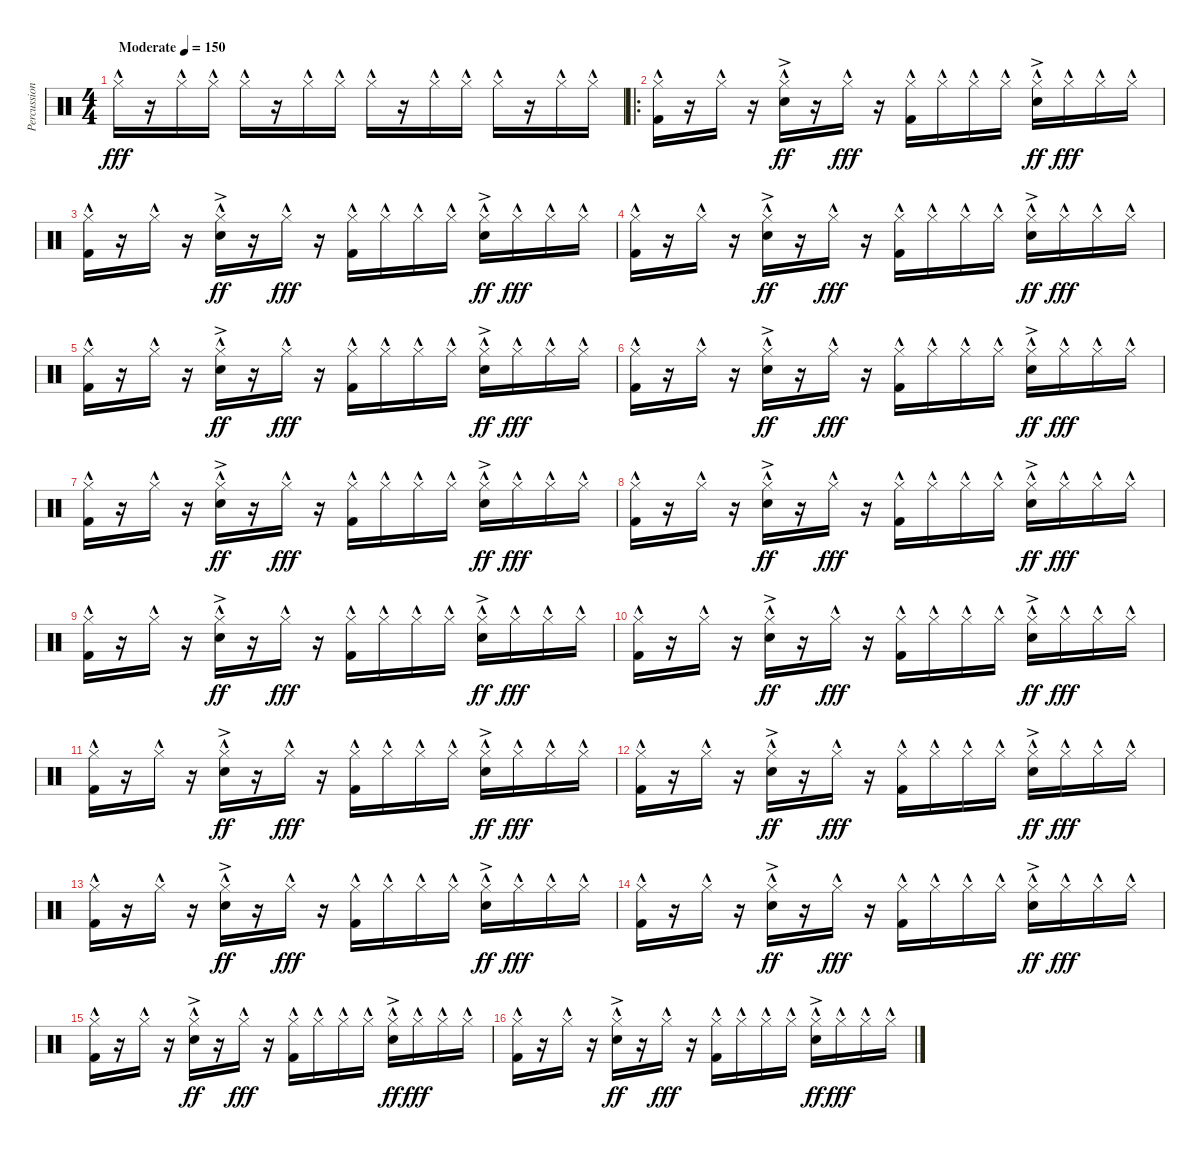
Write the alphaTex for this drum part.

\track ("Percussion" "Percussion") {instrument percussion}
\staff {score}
\articulation defaults
\ts (4 4)
\tempo (150 "Moderate")
\clef neutral
\ks c "Hi-Hat (closed)"{hac}.16{dy fff}
r.16 "Hi-Hat (closed)"{hac}.16 "Hi-Hat (closed)"{hac}.16 "Hi-Hat (closed)"{hac}.16 r.16 "Hi-Hat (closed)"{hac}.16 "Hi-Hat (closed)"{hac}.16 "Hi-Hat (closed)"{hac}.16 r.16 "Hi-Hat (closed)"{hac}.16 "Hi-Hat (closed)"{hac}.16 "Hi-Hat (closed)"{hac}.16 r.16 "Hi-Hat (closed)"{hac}.16 "Hi-Hat (closed)"{hac}.16 |
\ro
("Hi-Hat (closed)"{hac} "Kick (hit) 2"{hac}).16 r.16 "Hi-Hat (closed)"{hac}.16 r.16 ("Hi-Hat (closed)"{hac} "Snare (hit) 2"{ac}).16{dy ff} r.16 "Hi-Hat (closed)"{hac}.16{dy fff} r.16 ("Hi-Hat (closed)"{hac} "Kick (hit) 2"{hac}).16 "Hi-Hat (closed)"{hac}.16 "Hi-Hat (closed)"{hac}.16 "Hi-Hat (closed)"{hac}.16 ("Hi-Hat (closed)"{hac} "Snare (hit) 2"{ac}).16{dy ff} "Hi-Hat (closed)"{hac}.16{dy fff} "Hi-Hat (closed)"{hac}.16 "Hi-Hat (closed)"{hac}.16 |
("Hi-Hat (closed)"{hac} "Kick (hit) 2"{hac}).16 r.16 "Hi-Hat (closed)"{hac}.16 r.16 ("Hi-Hat (closed)"{hac} "Snare (hit) 2"{ac}).16{dy ff} r.16 "Hi-Hat (closed)"{hac}.16{dy fff} r.16 ("Hi-Hat (closed)"{hac} "Kick (hit) 2"{hac}).16 "Hi-Hat (closed)"{hac}.16 "Hi-Hat (closed)"{hac}.16 "Hi-Hat (closed)"{hac}.16 ("Hi-Hat (closed)"{hac} "Snare (hit) 2"{ac}).16{dy ff} "Hi-Hat (closed)"{hac}.16{dy fff} "Hi-Hat (closed)"{hac}.16 "Hi-Hat (closed)"{hac}.16 |
("Hi-Hat (closed)"{hac} "Kick (hit) 2"{hac}).16 r.16 "Hi-Hat (closed)"{hac}.16 r.16 ("Hi-Hat (closed)"{hac} "Snare (hit) 2"{ac}).16{dy ff} r.16 "Hi-Hat (closed)"{hac}.16{dy fff} r.16 ("Hi-Hat (closed)"{hac} "Kick (hit) 2"{hac}).16 "Hi-Hat (closed)"{hac}.16 "Hi-Hat (closed)"{hac}.16 "Hi-Hat (closed)"{hac}.16 ("Hi-Hat (closed)"{hac} "Snare (hit) 2"{ac}).16{dy ff} "Hi-Hat (closed)"{hac}.16{dy fff} "Hi-Hat (closed)"{hac}.16 "Hi-Hat (closed)"{hac}.16 |
("Hi-Hat (closed)"{hac} "Kick (hit) 2"{hac}).16 r.16 "Hi-Hat (closed)"{hac}.16 r.16 ("Hi-Hat (closed)"{hac} "Snare (hit) 2"{ac}).16{dy ff} r.16 "Hi-Hat (closed)"{hac}.16{dy fff} r.16 ("Hi-Hat (closed)"{hac} "Kick (hit) 2"{hac}).16 "Hi-Hat (closed)"{hac}.16 "Hi-Hat (closed)"{hac}.16 "Hi-Hat (closed)"{hac}.16 ("Hi-Hat (closed)"{hac} "Snare (hit) 2"{ac}).16{dy ff} "Hi-Hat (closed)"{hac}.16{dy fff} "Hi-Hat (closed)"{hac}.16 "Hi-Hat (closed)"{hac}.16 |
("Hi-Hat (closed)"{hac} "Kick (hit) 2"{hac}).16 r.16 "Hi-Hat (closed)"{hac}.16 r.16 ("Hi-Hat (closed)"{hac} "Snare (hit) 2"{ac}).16{dy ff} r.16 "Hi-Hat (closed)"{hac}.16{dy fff} r.16 ("Hi-Hat (closed)"{hac} "Kick (hit) 2"{hac}).16 "Hi-Hat (closed)"{hac}.16 "Hi-Hat (closed)"{hac}.16 "Hi-Hat (closed)"{hac}.16 ("Hi-Hat (closed)"{hac} "Snare (hit) 2"{ac}).16{dy ff} "Hi-Hat (closed)"{hac}.16{dy fff} "Hi-Hat (closed)"{hac}.16 "Hi-Hat (closed)"{hac}.16 |
("Hi-Hat (closed)"{hac} "Kick (hit) 2"{hac}).16 r.16 "Hi-Hat (closed)"{hac}.16 r.16 ("Hi-Hat (closed)"{hac} "Snare (hit) 2"{ac}).16{dy ff} r.16 "Hi-Hat (closed)"{hac}.16{dy fff} r.16 ("Hi-Hat (closed)"{hac} "Kick (hit) 2"{hac}).16 "Hi-Hat (closed)"{hac}.16 "Hi-Hat (closed)"{hac}.16 "Hi-Hat (closed)"{hac}.16 ("Hi-Hat (closed)"{hac} "Snare (hit) 2"{ac}).16{dy ff} "Hi-Hat (closed)"{hac}.16{dy fff} "Hi-Hat (closed)"{hac}.16 "Hi-Hat (closed)"{hac}.16 |
("Hi-Hat (closed)"{hac} "Kick (hit) 2"{hac}).16 r.16 "Hi-Hat (closed)"{hac}.16 r.16 ("Hi-Hat (closed)"{hac} "Snare (hit) 2"{ac}).16{dy ff} r.16 "Hi-Hat (closed)"{hac}.16{dy fff} r.16 ("Hi-Hat (closed)"{hac} "Kick (hit) 2"{hac}).16 "Hi-Hat (closed)"{hac}.16 "Hi-Hat (closed)"{hac}.16 "Hi-Hat (closed)"{hac}.16 ("Hi-Hat (closed)"{hac} "Snare (hit) 2"{ac}).16{dy ff} "Hi-Hat (closed)"{hac}.16{dy fff} "Hi-Hat (closed)"{hac}.16 "Hi-Hat (closed)"{hac}.16 |
("Hi-Hat (closed)"{hac} "Kick (hit) 2"{hac}).16 r.16 "Hi-Hat (closed)"{hac}.16 r.16 ("Hi-Hat (closed)"{hac} "Snare (hit) 2"{ac}).16{dy ff} r.16 "Hi-Hat (closed)"{hac}.16{dy fff} r.16 ("Hi-Hat (closed)"{hac} "Kick (hit) 2"{hac}).16 "Hi-Hat (closed)"{hac}.16 "Hi-Hat (closed)"{hac}.16 "Hi-Hat (closed)"{hac}.16 ("Hi-Hat (closed)"{hac} "Snare (hit) 2"{ac}).16{dy ff} "Hi-Hat (closed)"{hac}.16{dy fff} "Hi-Hat (closed)"{hac}.16 "Hi-Hat (closed)"{hac}.16 |
("Hi-Hat (closed)"{hac} "Kick (hit) 2"{hac}).16 r.16 "Hi-Hat (closed)"{hac}.16 r.16 ("Hi-Hat (closed)"{hac} "Snare (hit) 2"{ac}).16{dy ff} r.16 "Hi-Hat (closed)"{hac}.16{dy fff} r.16 ("Hi-Hat (closed)"{hac} "Kick (hit) 2"{hac}).16 "Hi-Hat (closed)"{hac}.16 "Hi-Hat (closed)"{hac}.16 "Hi-Hat (closed)"{hac}.16 ("Hi-Hat (closed)"{hac} "Snare (hit) 2"{ac}).16{dy ff} "Hi-Hat (closed)"{hac}.16{dy fff} "Hi-Hat (closed)"{hac}.16 "Hi-Hat (closed)"{hac}.16 |
("Hi-Hat (closed)"{hac} "Kick (hit) 2"{hac}).16 r.16 "Hi-Hat (closed)"{hac}.16 r.16 ("Hi-Hat (closed)"{hac} "Snare (hit) 2"{ac}).16{dy ff} r.16 "Hi-Hat (closed)"{hac}.16{dy fff} r.16 ("Hi-Hat (closed)"{hac} "Kick (hit) 2"{hac}).16 "Hi-Hat (closed)"{hac}.16 "Hi-Hat (closed)"{hac}.16 "Hi-Hat (closed)"{hac}.16 ("Hi-Hat (closed)"{hac} "Snare (hit) 2"{ac}).16{dy ff} "Hi-Hat (closed)"{hac}.16{dy fff} "Hi-Hat (closed)"{hac}.16 "Hi-Hat (closed)"{hac}.16 |
("Hi-Hat (closed)"{hac} "Kick (hit) 2"{hac}).16 r.16 "Hi-Hat (closed)"{hac}.16 r.16 ("Hi-Hat (closed)"{hac} "Snare (hit) 2"{ac}).16{dy ff} r.16 "Hi-Hat (closed)"{hac}.16{dy fff} r.16 ("Hi-Hat (closed)"{hac} "Kick (hit) 2"{hac}).16 "Hi-Hat (closed)"{hac}.16 "Hi-Hat (closed)"{hac}.16 "Hi-Hat (closed)"{hac}.16 ("Hi-Hat (closed)"{hac} "Snare (hit) 2"{ac}).16{dy ff} "Hi-Hat (closed)"{hac}.16{dy fff} "Hi-Hat (closed)"{hac}.16 "Hi-Hat (closed)"{hac}.16 |
("Hi-Hat (closed)"{hac} "Kick (hit) 2"{hac}).16 r.16 "Hi-Hat (closed)"{hac}.16 r.16 ("Hi-Hat (closed)"{hac} "Snare (hit) 2"{ac}).16{dy ff} r.16 "Hi-Hat (closed)"{hac}.16{dy fff} r.16 ("Hi-Hat (closed)"{hac} "Kick (hit) 2"{hac}).16 "Hi-Hat (closed)"{hac}.16 "Hi-Hat (closed)"{hac}.16 "Hi-Hat (closed)"{hac}.16 ("Hi-Hat (closed)"{hac} "Snare (hit) 2"{ac}).16{dy ff} "Hi-Hat (closed)"{hac}.16{dy fff} "Hi-Hat (closed)"{hac}.16 "Hi-Hat (closed)"{hac}.16 |
("Hi-Hat (closed)"{hac} "Kick (hit) 2"{hac}).16 r.16 "Hi-Hat (closed)"{hac}.16 r.16 ("Hi-Hat (closed)"{hac} "Snare (hit) 2"{ac}).16{dy ff} r.16 "Hi-Hat (closed)"{hac}.16{dy fff} r.16 ("Hi-Hat (closed)"{hac} "Kick (hit) 2"{hac}).16 "Hi-Hat (closed)"{hac}.16 "Hi-Hat (closed)"{hac}.16 "Hi-Hat (closed)"{hac}.16 ("Hi-Hat (closed)"{hac} "Snare (hit) 2"{ac}).16{dy ff} "Hi-Hat (closed)"{hac}.16{dy fff} "Hi-Hat (closed)"{hac}.16 "Hi-Hat (closed)"{hac}.16 |
("Hi-Hat (closed)"{hac} "Kick (hit) 2"{hac}).16 r.16 "Hi-Hat (closed)"{hac}.16 r.16 ("Hi-Hat (closed)"{hac} "Snare (hit) 2"{ac}).16{dy ff} r.16 "Hi-Hat (closed)"{hac}.16{dy fff} r.16 ("Hi-Hat (closed)"{hac} "Kick (hit) 2"{hac}).16 "Hi-Hat (closed)"{hac}.16 "Hi-Hat (closed)"{hac}.16 "Hi-Hat (closed)"{hac}.16 ("Hi-Hat (closed)"{hac} "Snare (hit) 2"{ac}).16{dy ff} "Hi-Hat (closed)"{hac}.16{dy fff} "Hi-Hat (closed)"{hac}.16 "Hi-Hat (closed)"{hac}.16 |
("Hi-Hat (closed)"{hac} "Kick (hit) 2"{hac}).16 r.16 "Hi-Hat (closed)"{hac}.16 r.16 ("Hi-Hat (closed)"{hac} "Snare (hit) 2"{ac}).16{dy ff} r.16 "Hi-Hat (closed)"{hac}.16{dy fff} r.16 ("Hi-Hat (closed)"{hac} "Kick (hit) 2"{hac}).16 "Hi-Hat (closed)"{hac}.16 "Hi-Hat (closed)"{hac}.16 "Hi-Hat (closed)"{hac}.16 ("Hi-Hat (closed)"{hac} "Snare (hit) 2"{ac}).16{dy ff} "Hi-Hat (closed)"{hac}.16{dy fff} "Hi-Hat (closed)"{hac}.16 "Hi-Hat (closed)"{hac}.16
